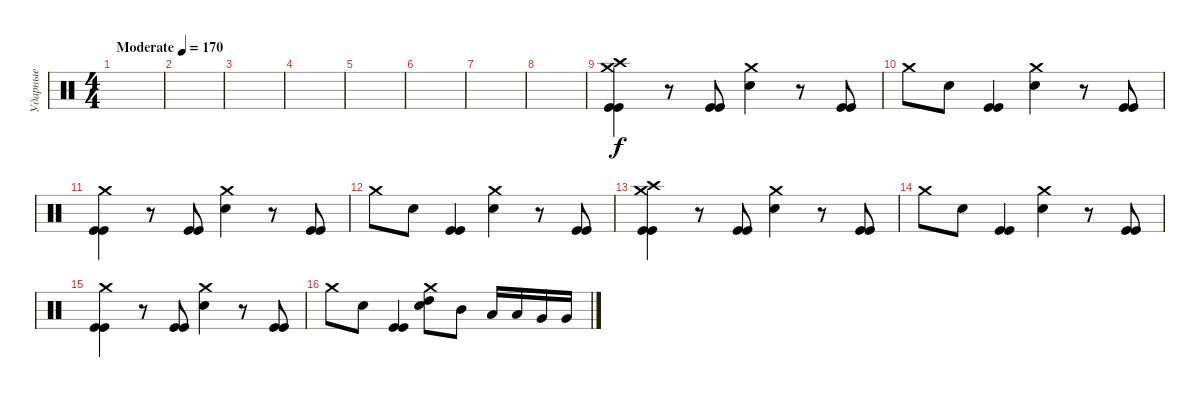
\track ("Ударные" "Ударные") {instrument percussion}
\staff {score}
\articulation defaults
\ts (4 4)
\tempo (170 "Moderate")
\clef neutral
\ks c
|
|
|
|
|
|
|
|
("Crash high (hit)" "Crash medium (hit)" "Kick (hit)" "Kick (hit)").4 r.8 ("Kick (hit)" "Kick (hit)").8 ("Crash medium (hit)" "Electric Snare (hit)").4 r.8 ("Kick (hit)" "Kick (hit)").8 |
"Crash medium (hit)".8 "Electric Snare (hit)".8 ("Kick (hit)" "Kick (hit)").4 ("Crash medium (hit)" "Electric Snare (hit)").4 r.8 ("Kick (hit)" "Kick (hit)").8 |
("Crash medium (hit)" "Kick (hit)" "Kick (hit)").4 r.8 ("Kick (hit)" "Kick (hit)").8 ("Crash medium (hit)" "Electric Snare (hit)").4 r.8 ("Kick (hit)" "Kick (hit)").8 |
"Crash medium (hit)".8 "Electric Snare (hit)".8 ("Kick (hit)" "Kick (hit)").4 ("Crash medium (hit)" "Electric Snare (hit)").4 r.8 ("Kick (hit)" "Kick (hit)").8 |
("Crash high (hit)" "Crash medium (hit)" "Kick (hit)" "Kick (hit)").4 r.8 ("Kick (hit)" "Kick (hit)").8 ("Crash medium (hit)" "Electric Snare (hit)").4 r.8 ("Kick (hit)" "Kick (hit)").8 |
"Crash medium (hit)".8 "Electric Snare (hit)".8 ("Kick (hit)" "Kick (hit)").4 ("Crash medium (hit)" "Electric Snare (hit)").4 r.8 ("Kick (hit)" "Kick (hit)").8 |
("Crash medium (hit)" "Kick (hit)" "Kick (hit)").4 r.8 ("Kick (hit)" "Kick (hit)").8 ("Crash medium (hit)" "Electric Snare (hit)").4 r.8 ("Kick (hit)" "Kick (hit)").8 |
"Crash medium (hit)".8 "Electric Snare (hit)".8 ("Kick (hit)" "Kick (hit)").4 ("Crash medium (hit)" "Electric Snare (hit)" "High Tom (hit)").8 "Mid Tom (hit)".8 "Low Tom (hit)".16 "Low Tom (hit)".16 "Very Low Tom (hit)".16 "Very Low Tom (hit)".16
